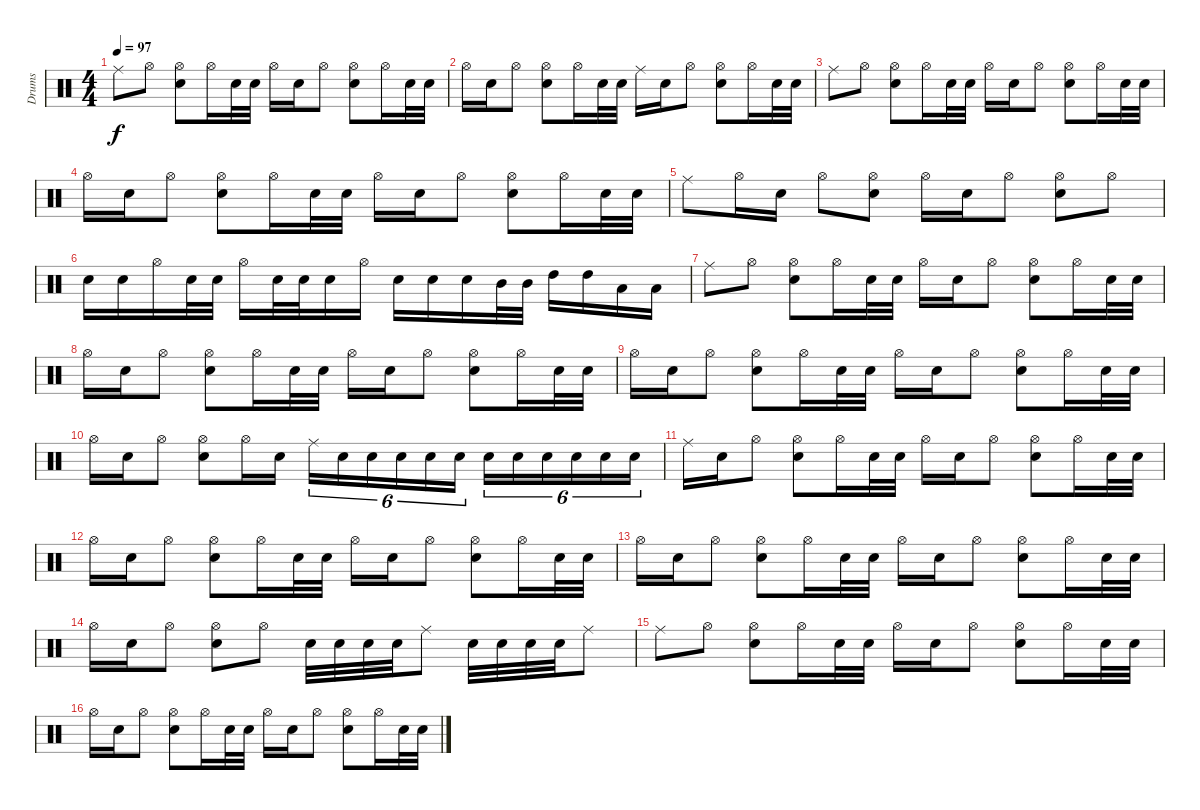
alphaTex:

\track ("Drums" "Drums") {instrument percussion}
\staff {score}
\articulation defaults
\ts (4 4)
\tempo 97
\clef neutral
\ks c "Ride (middle)".8{dy f} "Hi-Hat (open)".8
("Hi-Hat (open)" "Snare (hit) 2").8 "Hi-Hat (open)".16 "Snare (hit) 2".32 "Snare (hit) 2".32 "Hi-Hat (open)".16 "Snare (hit) 2".16 "Hi-Hat (open)".8 ("Hi-Hat (open)" "Snare (hit) 2").8 "Hi-Hat (open)".16 "Snare (hit) 2".32 "Snare (hit) 2".32 |
"Hi-Hat (open)".16 "Snare (hit) 2".16 "Hi-Hat (open)".8 ("Hi-Hat (open)" "Snare (hit) 2").8 "Hi-Hat (open)".16 "Snare (hit) 2".32 "Snare (hit) 2".32 "Ride (middle)".16 "Snare (hit) 2".16 "Hi-Hat (open)".8 ("Hi-Hat (open)" "Snare (hit) 2").8 "Hi-Hat (open)".16 "Snare (hit) 2".32 "Snare (hit) 2".32 |
"Ride (middle)".8 "Hi-Hat (open)".8 ("Hi-Hat (open)" "Snare (hit) 2").8 "Hi-Hat (open)".16 "Snare (hit) 2".32 "Snare (hit) 2".32 "Hi-Hat (open)".16 "Snare (hit) 2".16 "Hi-Hat (open)".8 ("Hi-Hat (open)" "Snare (hit) 2").8 "Hi-Hat (open)".16 "Snare (hit) 2".32 "Snare (hit) 2".32 |
"Hi-Hat (open)".16 "Snare (hit) 2".16 "Hi-Hat (open)".8 ("Hi-Hat (open)" "Snare (hit) 2").8 "Hi-Hat (open)".16 "Snare (hit) 2".32 "Snare (hit) 2".32 "Hi-Hat (open)".16 "Snare (hit) 2".16 "Hi-Hat (open)".8 ("Hi-Hat (open)" "Snare (hit) 2").8 "Hi-Hat (open)".16 "Snare (hit) 2".32 "Snare (hit) 2".32 |
"Ride (middle)".8 "Hi-Hat (open)".16 "Snare (hit) 2".16 "Hi-Hat (open)".8 ("Hi-Hat (open)" "Snare (hit) 2").8 "Hi-Hat (open)".16 "Snare (hit) 2".16 "Hi-Hat (open)".8 ("Hi-Hat (open)" "Snare (hit) 2").8 "Hi-Hat (open)".8 |
"Snare (hit) 2".16 "Snare (hit) 2".16 "Hi-Hat (open)".16 "Snare (hit) 2".32 "Snare (hit) 2".32 "Hi-Hat (open)".16 "Snare (hit) 2".32 "Snare (hit) 2".32 "Snare (hit) 2".16 "Hi-Hat (open)".16 "Snare (hit) 2".16 "Snare (hit) 2".16 "Snare (hit) 2".16 "Mid Tom (hit)".32 "Mid Tom (hit)".32 "High Tom (hit)".16 "High Tom (hit)".16 "Low Tom (hit)".16 "Low Tom (hit)".16 |
"Ride (middle)".8 "Hi-Hat (open)".8 ("Hi-Hat (open)" "Snare (hit) 2").8 "Hi-Hat (open)".16 "Snare (hit) 2".32 "Snare (hit) 2".32 "Hi-Hat (open)".16 "Snare (hit) 2".16 "Hi-Hat (open)".8 ("Hi-Hat (open)" "Snare (hit) 2").8 "Hi-Hat (open)".16 "Snare (hit) 2".32 "Snare (hit) 2".32 |
"Hi-Hat (open)".16 "Snare (hit) 2".16 "Hi-Hat (open)".8 ("Hi-Hat (open)" "Snare (hit) 2").8 "Hi-Hat (open)".16 "Snare (hit) 2".32 "Snare (hit) 2".32 "Hi-Hat (open)".16 "Snare (hit) 2".16 "Hi-Hat (open)".8 ("Hi-Hat (open)" "Snare (hit) 2").8 "Hi-Hat (open)".16 "Snare (hit) 2".32 "Snare (hit) 2".32 |
"Hi-Hat (open)".16 "Snare (hit) 2".16 "Hi-Hat (open)".8 ("Hi-Hat (open)" "Snare (hit) 2").8 "Hi-Hat (open)".16 "Snare (hit) 2".32 "Snare (hit) 2".32 "Hi-Hat (open)".16 "Snare (hit) 2".16 "Hi-Hat (open)".8 ("Hi-Hat (open)" "Snare (hit) 2").8 "Hi-Hat (open)".16 "Snare (hit) 2".32 "Snare (hit) 2".32 |
"Hi-Hat (open)".16 "Snare (hit) 2".16 "Hi-Hat (open)".8 ("Hi-Hat (open)" "Snare (hit) 2").8 "Hi-Hat (open)".16 "Snare (hit) 2".16 "Ride (middle)".16{tu (6 4)} "Snare (hit) 2".16{tu (6 4)} "Snare (hit) 2".16{tu (6 4)} "Snare (hit) 2".16{tu (6 4)} "Snare (hit) 2".16{tu (6 4)} "Snare (hit) 2".16{tu (6 4)} "Snare (hit) 2".16{tu (6 4)} "Snare (hit) 2".16{tu (6 4)} "Snare (hit) 2".16{tu (6 4)} "Snare (hit) 2".16{tu (6 4)} "Snare (hit) 2".16{tu (6 4)} "Snare (hit) 2".16{tu (6 4)} |
"Ride (middle)".16 "Snare (hit) 2".16 "Hi-Hat (open)".8 ("Hi-Hat (open)" "Snare (hit) 2").8 "Hi-Hat (open)".16 "Snare (hit) 2".32 "Snare (hit) 2".32 "Hi-Hat (open)".16 "Snare (hit) 2".16 "Hi-Hat (open)".8 ("Hi-Hat (open)" "Snare (hit) 2").8 "Hi-Hat (open)".16 "Snare (hit) 2".32 "Snare (hit) 2".32 |
"Hi-Hat (open)".16 "Snare (hit) 2".16 "Hi-Hat (open)".8 ("Hi-Hat (open)" "Snare (hit) 2").8 "Hi-Hat (open)".16 "Snare (hit) 2".32 "Snare (hit) 2".32 "Hi-Hat (open)".16 "Snare (hit) 2".16 "Hi-Hat (open)".8 ("Hi-Hat (open)" "Snare (hit) 2").8 "Hi-Hat (open)".16 "Snare (hit) 2".32 "Snare (hit) 2".32 |
"Hi-Hat (open)".16 "Snare (hit) 2".16 "Hi-Hat (open)".8 ("Hi-Hat (open)" "Snare (hit) 2").8 "Hi-Hat (open)".16 "Snare (hit) 2".32 "Snare (hit) 2".32 "Hi-Hat (open)".16 "Snare (hit) 2".16 "Hi-Hat (open)".8 ("Hi-Hat (open)" "Snare (hit) 2").8 "Hi-Hat (open)".16 "Snare (hit) 2".32 "Snare (hit) 2".32 |
"Hi-Hat (open)".16 "Snare (hit) 2".16 "Hi-Hat (open)".8 ("Hi-Hat (open)" "Snare (hit) 2").8 "Hi-Hat (open)".8 "Snare (hit) 2".32 "Snare (hit) 2".32 "Snare (hit) 2".32 "Snare (hit) 2".32 "Ride (middle)".8 "Snare (hit) 2".32 "Snare (hit) 2".32 "Snare (hit) 2".32 "Snare (hit) 2".32 "Ride (middle)".8 |
"Ride (middle)".8 "Hi-Hat (open)".8 ("Hi-Hat (open)" "Snare (hit) 2").8 "Hi-Hat (open)".16 "Snare (hit) 2".32 "Snare (hit) 2".32 "Hi-Hat (open)".16 "Snare (hit) 2".16 "Hi-Hat (open)".8 ("Hi-Hat (open)" "Snare (hit) 2").8 "Hi-Hat (open)".16 "Snare (hit) 2".32 "Snare (hit) 2".32 |
"Hi-Hat (open)".16 "Snare (hit) 2".16 "Hi-Hat (open)".8 ("Hi-Hat (open)" "Snare (hit) 2").8 "Hi-Hat (open)".16 "Snare (hit) 2".32 "Snare (hit) 2".32 "Hi-Hat (open)".16 "Snare (hit) 2".16 "Hi-Hat (open)".8 ("Hi-Hat (open)" "Snare (hit) 2").8 "Hi-Hat (open)".16 "Snare (hit) 2".32 "Snare (hit) 2".32
